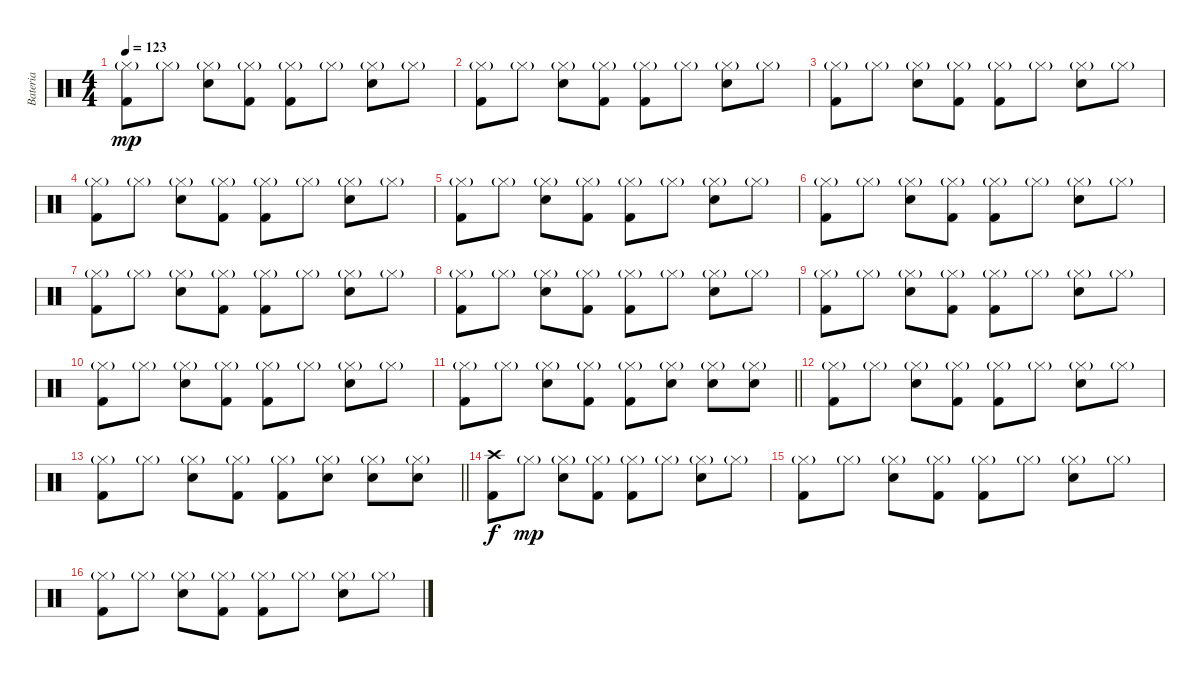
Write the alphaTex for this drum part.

\track ("Bateria" "Bateria") {instrument percussion}
\staff {score}
\articulation defaults
\ts (4 4)
\tempo 123
\clef neutral
\ks c
("Hi-Hat (closed)"{g} "Kick (hit) 2").8{dy mp} "Hi-Hat (closed)"{g}.8 ("Hi-Hat (closed)"{g} "Snare (hit) 2").8 ("Hi-Hat (closed)"{g} "Kick (hit) 2").8 ("Hi-Hat (closed)"{g} "Kick (hit) 2").8 "Hi-Hat (closed)"{g}.8 ("Hi-Hat (closed)"{g} "Snare (hit) 2").8 "Hi-Hat (closed)"{g}.8 |
("Hi-Hat (closed)"{g} "Kick (hit) 2").8 "Hi-Hat (closed)"{g}.8 ("Hi-Hat (closed)"{g} "Snare (hit) 2").8 ("Hi-Hat (closed)"{g} "Kick (hit) 2").8 ("Hi-Hat (closed)"{g} "Kick (hit) 2").8 "Hi-Hat (closed)"{g}.8 ("Hi-Hat (closed)"{g} "Snare (hit) 2").8 "Hi-Hat (closed)"{g}.8 |
("Hi-Hat (closed)"{g} "Kick (hit) 2").8 "Hi-Hat (closed)"{g}.8 ("Hi-Hat (closed)"{g} "Snare (hit) 2").8 ("Hi-Hat (closed)"{g} "Kick (hit) 2").8 ("Hi-Hat (closed)"{g} "Kick (hit) 2").8 "Hi-Hat (closed)"{g}.8 ("Hi-Hat (closed)"{g} "Snare (hit) 2").8 "Hi-Hat (closed)"{g}.8 |
("Hi-Hat (closed)"{g} "Kick (hit) 2").8 "Hi-Hat (closed)"{g}.8 ("Hi-Hat (closed)"{g} "Snare (hit) 2").8 ("Hi-Hat (closed)"{g} "Kick (hit) 2").8 ("Hi-Hat (closed)"{g} "Kick (hit) 2").8 "Hi-Hat (closed)"{g}.8 ("Hi-Hat (closed)"{g} "Snare (hit) 2").8 "Hi-Hat (closed)"{g}.8 |
("Hi-Hat (closed)"{g} "Kick (hit) 2").8 "Hi-Hat (closed)"{g}.8 ("Hi-Hat (closed)"{g} "Snare (hit) 2").8 ("Hi-Hat (closed)"{g} "Kick (hit) 2").8 ("Hi-Hat (closed)"{g} "Kick (hit) 2").8 "Hi-Hat (closed)"{g}.8 ("Hi-Hat (closed)"{g} "Snare (hit) 2").8 "Hi-Hat (closed)"{g}.8 |
("Hi-Hat (closed)"{g} "Kick (hit) 2").8 "Hi-Hat (closed)"{g}.8 ("Hi-Hat (closed)"{g} "Snare (hit) 2").8 ("Hi-Hat (closed)"{g} "Kick (hit) 2").8 ("Hi-Hat (closed)"{g} "Kick (hit) 2").8 "Hi-Hat (closed)"{g}.8 ("Hi-Hat (closed)"{g} "Snare (hit) 2").8 "Hi-Hat (closed)"{g}.8 |
("Hi-Hat (closed)"{g} "Kick (hit) 2").8 "Hi-Hat (closed)"{g}.8 ("Hi-Hat (closed)"{g} "Snare (hit) 2").8 ("Hi-Hat (closed)"{g} "Kick (hit) 2").8 ("Hi-Hat (closed)"{g} "Kick (hit) 2").8 "Hi-Hat (closed)"{g}.8 ("Hi-Hat (closed)"{g} "Snare (hit) 2").8 "Hi-Hat (closed)"{g}.8 |
("Hi-Hat (closed)"{g} "Kick (hit) 2").8 "Hi-Hat (closed)"{g}.8 ("Hi-Hat (closed)"{g} "Snare (hit) 2").8 ("Hi-Hat (closed)"{g} "Kick (hit) 2").8 ("Hi-Hat (closed)"{g} "Kick (hit) 2").8 "Hi-Hat (closed)"{g}.8 ("Hi-Hat (closed)"{g} "Snare (hit) 2").8 "Hi-Hat (closed)"{g}.8 |
("Hi-Hat (closed)"{g} "Kick (hit) 2").8 "Hi-Hat (closed)"{g}.8 ("Hi-Hat (closed)"{g} "Snare (hit) 2").8 ("Hi-Hat (closed)"{g} "Kick (hit) 2").8 ("Hi-Hat (closed)"{g} "Kick (hit) 2").8 "Hi-Hat (closed)"{g}.8 ("Hi-Hat (closed)"{g} "Snare (hit) 2").8 "Hi-Hat (closed)"{g}.8 |
("Hi-Hat (closed)"{g} "Kick (hit) 2").8 "Hi-Hat (closed)"{g}.8 ("Hi-Hat (closed)"{g} "Snare (hit) 2").8 ("Hi-Hat (closed)"{g} "Kick (hit) 2").8 ("Hi-Hat (closed)"{g} "Kick (hit) 2").8 "Hi-Hat (closed)"{g}.8 ("Hi-Hat (closed)"{g} "Snare (hit) 2").8 "Hi-Hat (closed)"{g}.8 |
\barLineRight lightlight
("Hi-Hat (closed)"{g} "Kick (hit) 2").8 "Hi-Hat (closed)"{g}.8 ("Hi-Hat (closed)"{g} "Snare (hit) 2").8 ("Hi-Hat (closed)"{g} "Kick (hit) 2").8 ("Hi-Hat (closed)"{g} "Kick (hit) 2").8 ("Hi-Hat (closed)"{g} "Snare (hit) 2").8 ("Hi-Hat (closed)"{g} "Snare (hit) 2").8 ("Hi-Hat (closed)"{g} "Snare (hit) 2").8 |
("Hi-Hat (closed)"{g} "Kick (hit) 2").8 "Hi-Hat (closed)"{g}.8 ("Hi-Hat (closed)"{g} "Snare (hit) 2").8 ("Hi-Hat (closed)"{g} "Kick (hit) 2").8 ("Hi-Hat (closed)"{g} "Kick (hit) 2").8 "Hi-Hat (closed)"{g}.8 ("Hi-Hat (closed)"{g} "Snare (hit) 2").8 "Hi-Hat (closed)"{g}.8 |
\barLineRight lightlight
("Hi-Hat (closed)"{g} "Kick (hit) 2").8 "Hi-Hat (closed)"{g}.8 ("Hi-Hat (closed)"{g} "Snare (hit) 2").8 ("Hi-Hat (closed)"{g} "Kick (hit) 2").8 ("Hi-Hat (closed)"{g} "Kick (hit) 2").8 ("Hi-Hat (closed)"{g} "Snare (hit) 2").8 ("Hi-Hat (closed)"{g} "Snare (hit) 2").8 ("Hi-Hat (closed)"{g} "Snare (hit) 2").8 |
("Crash high (hit)" "Kick (hit) 2").8{dy f} "Hi-Hat (closed)"{g}.8{dy mp} ("Hi-Hat (closed)"{g} "Snare (hit) 2").8 ("Hi-Hat (closed)"{g} "Kick (hit) 2").8 ("Hi-Hat (closed)"{g} "Kick (hit) 2").8 "Hi-Hat (closed)"{g}.8 ("Hi-Hat (closed)"{g} "Snare (hit) 2").8 "Hi-Hat (closed)"{g}.8 |
("Hi-Hat (closed)"{g} "Kick (hit) 2").8 "Hi-Hat (closed)"{g}.8 ("Hi-Hat (closed)"{g} "Snare (hit) 2").8 ("Hi-Hat (closed)"{g} "Kick (hit) 2").8 ("Hi-Hat (closed)"{g} "Kick (hit) 2").8 "Hi-Hat (closed)"{g}.8 ("Hi-Hat (closed)"{g} "Snare (hit) 2").8 "Hi-Hat (closed)"{g}.8 |
("Hi-Hat (closed)"{g} "Kick (hit) 2").8 "Hi-Hat (closed)"{g}.8 ("Hi-Hat (closed)"{g} "Snare (hit) 2").8 ("Hi-Hat (closed)"{g} "Kick (hit) 2").8 ("Hi-Hat (closed)"{g} "Kick (hit) 2").8 "Hi-Hat (closed)"{g}.8 ("Hi-Hat (closed)"{g} "Snare (hit) 2").8 "Hi-Hat (closed)"{g}.8
